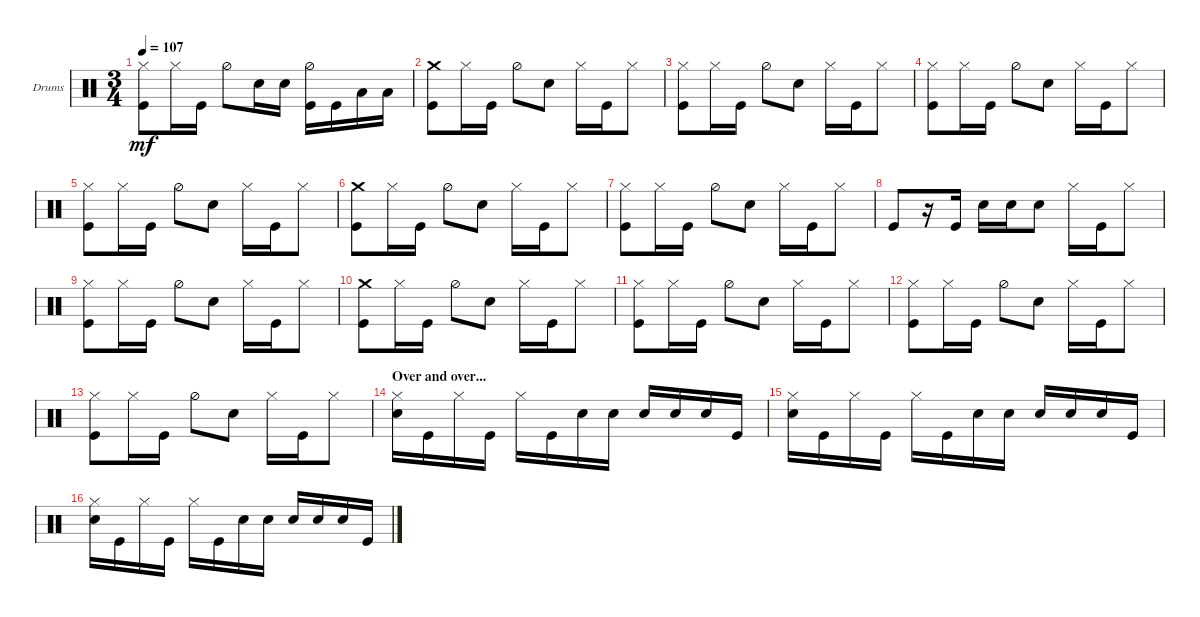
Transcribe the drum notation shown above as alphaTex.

\defaultSystemsLayout 4
\bracketExtendMode groupsimilarinstruments
\firstSystemTrackNameOrientation horizontal
\otherSystemsTrackNameOrientation horizontal
\track ("Drumkit" "Drums") {instrument percussion}
\staff {score}
\articulation defaults
\ts (3 4)
\tempo 107
\clef neutral
\ks c
("Hi-Hat (closed)" "Kick (hit)").8{dy mf} "Hi-Hat (closed)".16 "Kick (hit)".16 "Hi-Hat (half)".8 "Snare (hit) 2".16 "Snare (hit) 2".16 ("Kick (hit)" "Hi-Hat (half)").16 "Kick (hit)".16 "Low Tom (hit)".16 "Low Tom (hit)".16 |
("Crash medium (hit)" "Kick (hit)").8 "Hi-Hat (closed)".16 "Kick (hit)".16 "Hi-Hat (half)".8 "Snare (hit) 2".8 "Hi-Hat (closed)".16 "Kick (hit)".16 "Hi-Hat (closed)".8 |
("Hi-Hat (closed)" "Kick (hit)").8 "Hi-Hat (closed)".16 "Kick (hit)".16 "Hi-Hat (half)".8 "Snare (hit) 2".8 "Hi-Hat (closed)".16 "Kick (hit)".16 "Hi-Hat (closed)".8 |
("Hi-Hat (closed)" "Kick (hit)").8 "Hi-Hat (closed)".16 "Kick (hit)".16 "Hi-Hat (half)".8 "Snare (hit) 2".8 "Hi-Hat (closed)".16 "Kick (hit)".16 "Hi-Hat (closed)".8 |
("Hi-Hat (closed)" "Kick (hit)").8 "Hi-Hat (closed)".16 "Kick (hit)".16 "Hi-Hat (half)".8 "Snare (hit) 2".8 "Hi-Hat (closed)".16 "Kick (hit)".16 "Hi-Hat (closed)".8 |
("Crash medium (hit)" "Kick (hit)").8 "Hi-Hat (closed)".16 "Kick (hit)".16 "Hi-Hat (half)".8 "Snare (hit) 2".8 "Hi-Hat (closed)".16 "Kick (hit)".16 "Hi-Hat (closed)".8 |
("Hi-Hat (closed)" "Kick (hit)").8 "Hi-Hat (closed)".16 "Kick (hit)".16 "Hi-Hat (half)".8 "Snare (hit) 2".8 "Hi-Hat (closed)".16 "Kick (hit)".16 "Hi-Hat (closed)".8 |
"Kick (hit)".8 r.16 "Kick (hit)".16 "Snare (hit) 2".16 "Snare (hit) 2".16 "Snare (hit) 2".8 "Hi-Hat (closed)".16 "Kick (hit)".16 "Hi-Hat (closed)".8 |
("Hi-Hat (closed)" "Kick (hit)").8 "Hi-Hat (closed)".16 "Kick (hit)".16 "Hi-Hat (half)".8 "Snare (hit) 2".8 "Hi-Hat (closed)".16 "Kick (hit)".16 "Hi-Hat (closed)".8 |
("Crash medium (hit)" "Kick (hit)").8 "Hi-Hat (closed)".16 "Kick (hit)".16 "Hi-Hat (half)".8 "Snare (hit) 2".8 "Hi-Hat (closed)".16 "Kick (hit)".16 "Hi-Hat (closed)".8 |
("Hi-Hat (closed)" "Kick (hit)").8 "Hi-Hat (closed)".16 "Kick (hit)".16 "Hi-Hat (half)".8 "Snare (hit) 2".8 "Hi-Hat (closed)".16 "Kick (hit)".16 "Hi-Hat (closed)".8 |
("Hi-Hat (closed)" "Kick (hit)").8 "Hi-Hat (closed)".16 "Kick (hit)".16 "Hi-Hat (half)".8 "Snare (hit) 2".8 "Hi-Hat (closed)".16 "Kick (hit)".16 "Hi-Hat (closed)".8 |
("Hi-Hat (closed)" "Kick (hit)").8 "Hi-Hat (closed)".16 "Kick (hit)".16 "Hi-Hat (half)".8 "Snare (hit) 2".8 "Hi-Hat (closed)".16 "Kick (hit)".16 "Hi-Hat (closed)".8 |
\section ("" "Over and over...")
("Snare (hit) 2" "Hi-Hat (closed)").16 "Kick (hit)".16 "Hi-Hat (closed)".16 "Kick (hit)".16 "Hi-Hat (closed)".16 "Kick (hit)".16 "Snare (hit) 2".16 "Snare (hit) 2".16 "Snare (hit) 2".16 "Snare (hit) 2".16 "Snare (hit) 2".16 "Kick (hit)".16 |
("Snare (hit) 2" "Hi-Hat (closed)").16 "Kick (hit)".16 "Hi-Hat (closed)".16 "Kick (hit)".16 "Hi-Hat (closed)".16 "Kick (hit)".16 "Snare (hit) 2".16 "Snare (hit) 2".16 "Snare (hit) 2".16 "Snare (hit) 2".16 "Snare (hit) 2".16 "Kick (hit)".16 |
("Snare (hit) 2" "Hi-Hat (closed)").16 "Kick (hit)".16 "Hi-Hat (closed)".16 "Kick (hit)".16 "Hi-Hat (closed)".16 "Kick (hit)".16 "Snare (hit) 2".16 "Snare (hit) 2".16 "Snare (hit) 2".16 "Snare (hit) 2".16 "Snare (hit) 2".16 "Kick (hit)".16
